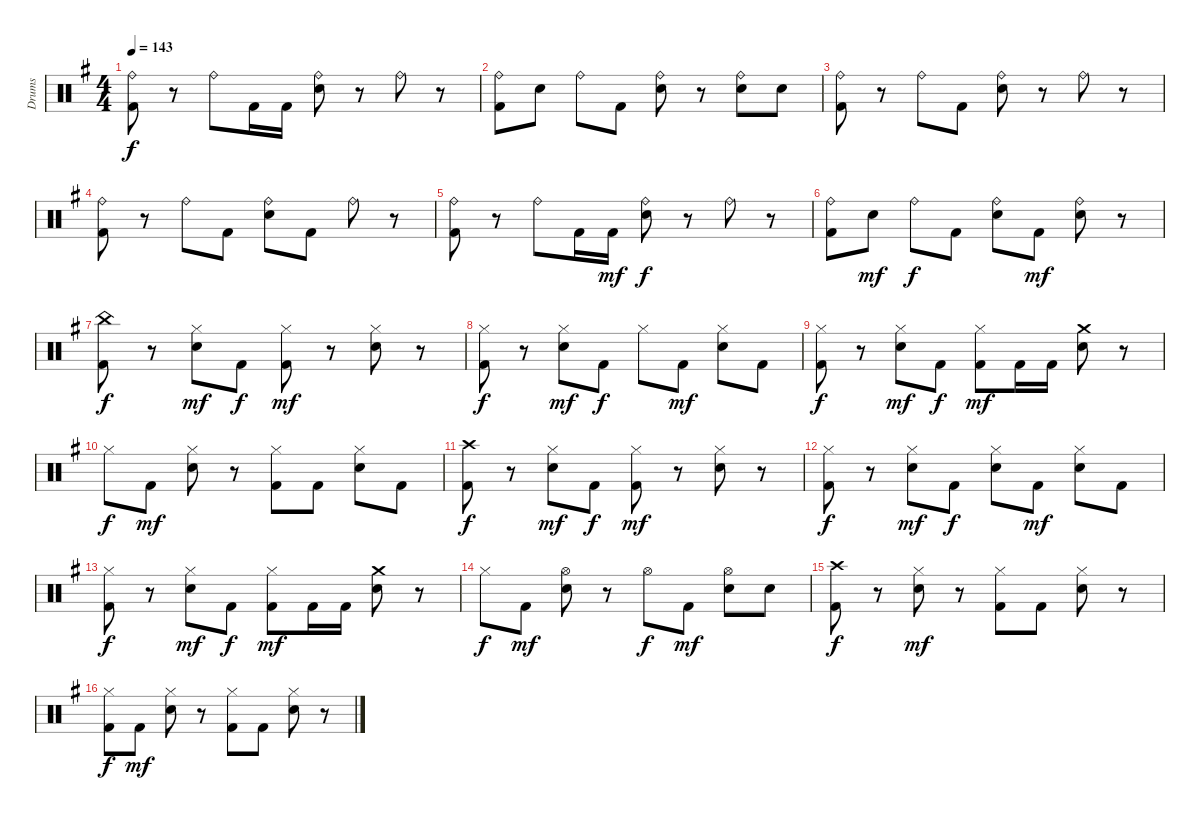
\track ("Drums" "Drums") {instrument percussion}
\staff {score}
\articulation defaults
\ts (4 4)
\tempo 143
\clef neutral
\ks g
("Ride (bell)" "Kick (hit) 2").8{dy f} r.8 "Ride (bell)".8 "Kick (hit) 2".16 "Kick (hit) 2".16 ("Ride (bell)" "Electric Snare (hit)").8 r.8 "Ride (bell)".8 r.8 |
("Ride (bell)" "Kick (hit) 2").8 "Electric Snare (hit)".8 "Ride (bell)".8 "Kick (hit) 2".8 ("Ride (bell)" "Electric Snare (hit)").8 r.8 ("Ride (bell)" "Electric Snare (hit)").8 "Electric Snare (hit)".8 |
("Ride (bell)" "Kick (hit) 2").8 r.8 "Ride (bell)".8 "Kick (hit) 2".8 ("Ride (bell)" "Electric Snare (hit)").8 r.8 "Ride (bell)".8 r.8 |
("Ride (bell)" "Kick (hit) 2").8 r.8 "Ride (bell)".8 "Kick (hit) 2".8 ("Ride (bell)" "Electric Snare (hit)").8 "Kick (hit) 2".8 "Ride (bell)".8 r.8 |
("Ride (bell)" "Kick (hit) 2").8 r.8 "Ride (bell)".8 "Kick (hit) 2".16 "Kick (hit) 2".16{dy mf} ("Ride (bell)" "Electric Snare (hit)").8{dy f} r.8 "Ride (bell)".8 r.8 |
("Ride (bell)" "Kick (hit) 2").8 "Electric Snare (hit)".8{dy mf} "Ride (bell)".8{dy f} "Kick (hit) 2".8 ("Ride (bell)" "Electric Snare (hit)").8 "Kick (hit) 2".8{dy mf} ("Ride (bell)" "Electric Snare (hit)").8 r.8 |
("China (hit)" "Kick (hit) 2").8{dy f} r.8 ("Hi-Hat (closed)" "Electric Snare (hit)").8{dy mf} "Kick (hit) 2".8{dy f} ("Hi-Hat (closed)" "Kick (hit) 2").8{dy mf} r.8 ("Hi-Hat (closed)" "Electric Snare (hit)").8 r.8 |
("Hi-Hat (closed)" "Kick (hit) 2").8{dy f} r.8 ("Hi-Hat (closed)" "Electric Snare (hit)").8{dy mf} "Kick (hit) 2".8{dy f} "Hi-Hat (closed)".8 "Kick (hit) 2".8{dy mf} ("Hi-Hat (closed)" "Electric Snare (hit)").8 "Kick (hit) 2".8 |
("Hi-Hat (closed)" "Kick (hit) 2").8{dy f} r.8 ("Hi-Hat (closed)" "Electric Snare (hit)").8{dy mf} "Kick (hit) 2".8{dy f} ("Hi-Hat (closed)" "Kick (hit) 2").8{dy mf} "Kick (hit) 2".16 "Kick (hit) 2".16 ("Crash medium (hit)" "Electric Snare (hit)").8 r.8 |
"Hi-Hat (closed)".8{dy f} "Kick (hit) 2".8{dy mf} ("Hi-Hat (closed)" "Electric Snare (hit)").8 r.8 ("Hi-Hat (closed)" "Kick (hit) 2").8 "Kick (hit) 2".8 ("Hi-Hat (closed)" "Electric Snare (hit)").8 "Kick (hit) 2".8 |
("Crash high (hit)" "Kick (hit) 2").8{dy f} r.8 ("Hi-Hat (closed)" "Electric Snare (hit)").8{dy mf} "Kick (hit) 2".8{dy f} ("Hi-Hat (closed)" "Kick (hit) 2").8{dy mf} r.8 ("Hi-Hat (closed)" "Electric Snare (hit)").8 r.8 |
("Hi-Hat (closed)" "Kick (hit) 2").8{dy f} r.8 ("Hi-Hat (closed)" "Electric Snare (hit)").8{dy mf} "Kick (hit) 2".8{dy f} ("Hi-Hat (closed)" "Electric Snare (hit)").8 "Kick (hit) 2".8{dy mf} ("Hi-Hat (closed)" "Electric Snare (hit)").8 "Kick (hit) 2".8 |
("Hi-Hat (closed)" "Kick (hit) 2").8{dy f} r.8 ("Hi-Hat (closed)" "Electric Snare (hit)").8{dy mf} "Kick (hit) 2".8{dy f} ("Hi-Hat (closed)" "Kick (hit) 2").8{dy mf} "Kick (hit) 2".16 "Kick (hit) 2".16 ("Crash medium (hit)" "Electric Snare (hit)").8 r.8 |
"Hi-Hat (closed)".8{dy f} "Kick (hit) 2".8{dy mf} ("Hi-Hat (open)" "Electric Snare (hit)").8 r.8 "Hi-Hat (open)".8{dy f} "Kick (hit) 2".8{dy mf} ("Hi-Hat (open)" "Electric Snare (hit)").8 "Electric Snare (hit)".8 |
("Crash high (hit)" "Kick (hit) 2").8{dy f} r.8 ("Hi-Hat (closed)" "Electric Snare (hit)").8{dy mf} r.8 ("Hi-Hat (closed)" "Kick (hit) 2").8 "Kick (hit) 2".8 ("Hi-Hat (closed)" "Electric Snare (hit)").8 r.8 |
("Hi-Hat (closed)" "Kick (hit) 2").8{dy f} "Kick (hit) 2".8{dy mf} ("Hi-Hat (closed)" "Electric Snare (hit)").8 r.8 ("Hi-Hat (closed)" "Kick (hit) 2").8 "Kick (hit) 2".8 ("Hi-Hat (closed)" "Electric Snare (hit)").8 r.8
